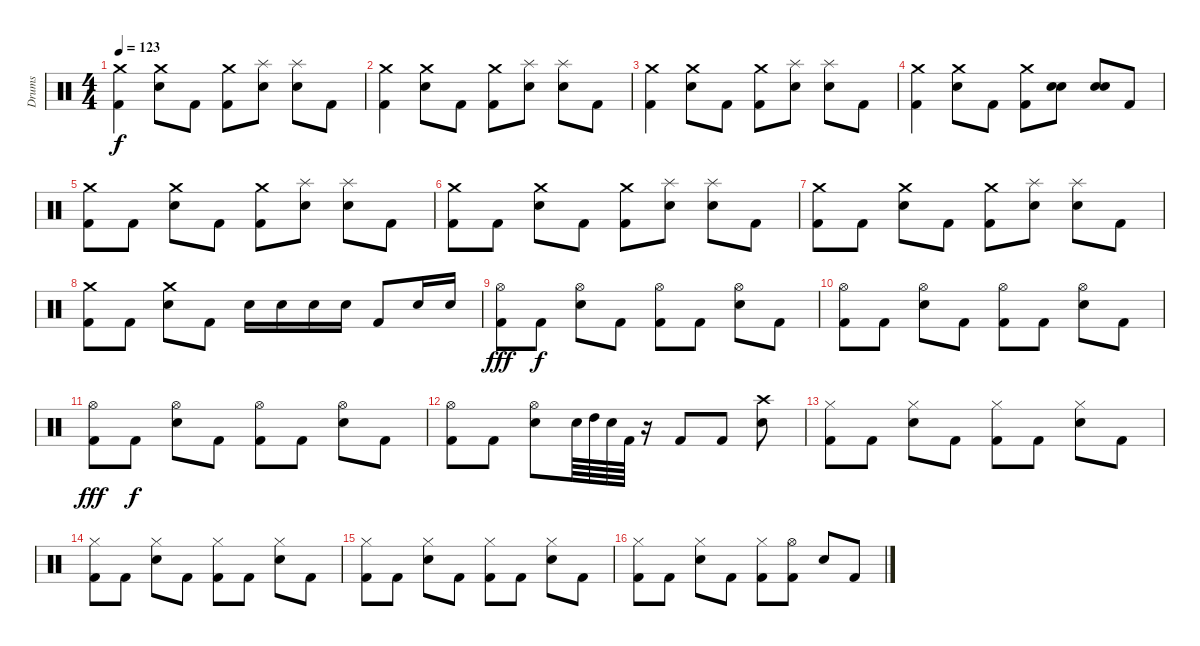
\track ("Drums" "Drums") {instrument percussion}
\staff {score}
\articulation defaults
\ts (4 4)
\tempo 123
\clef neutral
\ks c
("Crash medium (hit)" "Kick (hit) 2").4{dy f} ("Crash medium (hit)" "Electric Snare (hit)").8 "Kick (hit) 2".8 ("Crash medium (hit)" "Kick (hit) 2").8 ("Splash (hit)" "Electric Snare (hit)").8 ("Splash (hit)" "Electric Snare (hit)").8 "Kick (hit) 2".8 |
("Crash medium (hit)" "Kick (hit) 2").4 ("Crash medium (hit)" "Electric Snare (hit)").8 "Kick (hit) 2".8 ("Crash medium (hit)" "Kick (hit) 2").8 ("Splash (hit)" "Electric Snare (hit)").8 ("Splash (hit)" "Electric Snare (hit)").8 "Kick (hit) 2".8 |
("Crash medium (hit)" "Kick (hit) 2").4 ("Crash medium (hit)" "Electric Snare (hit)").8 "Kick (hit) 2".8 ("Crash medium (hit)" "Kick (hit) 2").8 ("Splash (hit)" "Electric Snare (hit)").8 ("Splash (hit)" "Electric Snare (hit)").8 "Kick (hit) 2".8 |
("Crash medium (hit)" "Kick (hit) 2").4 ("Crash medium (hit)" "Electric Snare (hit)").8 "Kick (hit) 2".8 ("Crash medium (hit)" "Kick (hit) 2").8 ("Electric Snare (hit)" "Electric Snare (hit)").8 ("Electric Snare (hit)" "Electric Snare (hit)").8 "Kick (hit) 2".8 |
("Crash medium (hit)" "Kick (hit) 2").8 "Kick (hit) 2".8 ("Crash medium (hit)" "Electric Snare (hit)").8 "Kick (hit) 2".8 ("Crash medium (hit)" "Kick (hit) 2").8 ("Splash (hit)" "Electric Snare (hit)").8 ("Splash (hit)" "Electric Snare (hit)").8 "Kick (hit) 2".8 |
("Crash medium (hit)" "Kick (hit) 2").8 "Kick (hit) 2".8 ("Crash medium (hit)" "Electric Snare (hit)").8 "Kick (hit) 2".8 ("Crash medium (hit)" "Kick (hit) 2").8 ("Splash (hit)" "Snare (hit)").8 ("Splash (hit)" "Electric Snare (hit)").8 "Kick (hit) 2".8 |
("Crash medium (hit)" "Kick (hit) 2").8 "Kick (hit) 2".8 ("Crash medium (hit)" "Electric Snare (hit)").8 "Kick (hit) 2".8 ("Crash medium (hit)" "Kick (hit) 2").8 ("Splash (hit)" "Electric Snare (hit)").8 ("Splash (hit)" "Electric Snare (hit)").8 "Kick (hit) 2".8 |
("Crash medium (hit)" "Kick (hit) 2").8 "Kick (hit) 2".8 ("Crash medium (hit)" "Electric Snare (hit)").8 "Kick (hit) 2".8 "Electric Snare (hit)".16 "Electric Snare (hit)".16 "Electric Snare (hit)".16 "Electric Snare (hit)".16 "Kick (hit) 2".8 "Electric Snare (hit)".16 "Electric Snare (hit)".16 |
("Hi-Hat (open)" "Kick (hit) 2").8{dy fff} "Kick (hit) 2".8{dy f} ("Hi-Hat (open)" "Electric Snare (hit)").8 "Kick (hit) 2".8 ("Hi-Hat (open)" "Kick (hit) 2").8 "Kick (hit) 2".8 ("Hi-Hat (open)" "Electric Snare (hit)").8 "Kick (hit) 2".8 |
("Hi-Hat (open)" "Kick (hit) 2").8 "Kick (hit) 2".8 ("Hi-Hat (open)" "Electric Snare (hit)").8 "Kick (hit) 2".8 ("Hi-Hat (open)" "Kick (hit) 2").8 "Kick (hit) 2".8 ("Hi-Hat (open)" "Electric Snare (hit)").8 "Kick (hit) 2".8 |
("Hi-Hat (open)" "Kick (hit) 2").8{dy fff} "Kick (hit) 2".8{dy f} ("Hi-Hat (open)" "Electric Snare (hit)").8 "Kick (hit) 2".8 ("Hi-Hat (open)" "Kick (hit) 2").8 "Kick (hit) 2".8 ("Hi-Hat (open)" "Electric Snare (hit)").8 "Kick (hit) 2".8 |
("Hi-Hat (open)" "Kick (hit) 2").8 "Kick (hit) 2".8 ("Hi-Hat (open)" "Electric Snare (hit)").8 "Electric Snare (hit)".64 "High Tom (hit)".64 "Electric Snare (hit)".64 "Kick (hit) 2".64 r.16 "Kick (hit) 2".8 "Kick (hit) 2".8 ("Crash high (hit)" "Electric Snare (hit)").8 |
("Hi-Hat (closed)" "Kick (hit) 2").8 "Kick (hit) 2".8 ("Hi-Hat (closed)" "Electric Snare (hit)").8 "Kick (hit) 2".8 ("Hi-Hat (closed)" "Kick (hit) 2").8 "Kick (hit) 2".8 ("Hi-Hat (closed)" "Electric Snare (hit)").8 "Kick (hit) 2".8 |
("Hi-Hat (closed)" "Kick (hit) 2").8 "Kick (hit) 2".8 ("Hi-Hat (closed)" "Electric Snare (hit)").8 "Kick (hit) 2".8 ("Hi-Hat (closed)" "Kick (hit) 2").8 "Kick (hit) 2".8 ("Hi-Hat (closed)" "Electric Snare (hit)").8 "Kick (hit) 2".8 |
("Hi-Hat (closed)" "Kick (hit) 2").8 "Kick (hit) 2".8 ("Hi-Hat (closed)" "Electric Snare (hit)").8 "Kick (hit) 2".8 ("Hi-Hat (closed)" "Kick (hit) 2").8 "Kick (hit) 2".8 ("Hi-Hat (closed)" "Electric Snare (hit)").8 "Kick (hit) 2".8 |
("Hi-Hat (closed)" "Kick (hit) 2").8 "Kick (hit) 2".8 ("Hi-Hat (closed)" "Electric Snare (hit)").8 "Kick (hit) 2".8 ("Hi-Hat (closed)" "Kick (hit) 2").8 ("Hi-Hat (open)" "Kick (hit) 2").8 "Electric Snare (hit)".8 "Kick (hit) 2".8
